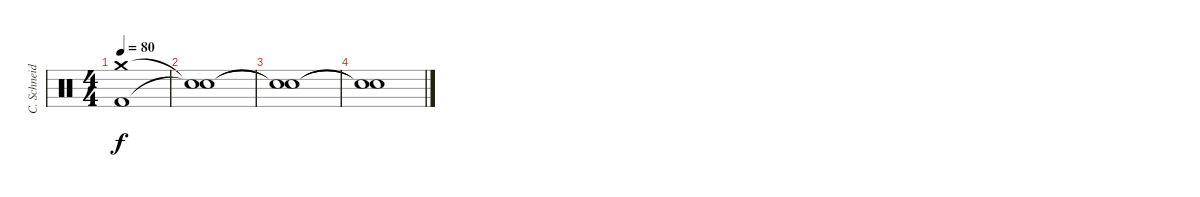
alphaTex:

\track ("C. Schneider" "C. Schneid") {instrument percussion}
\staff {score}
\articulation defaults
\ts (4 4)
\tempo 80
\clef neutral
\ks c
("Crash medium (hit)" "Kick (hit) 2").1{dy f} |
("Snare (hit)"{t} "Snare (hit)"{t}).1 |
("Snare (hit)"{t} "Snare (hit)"{t}).1 |
("Snare (hit)"{t} "Snare (hit)"{t}).1
